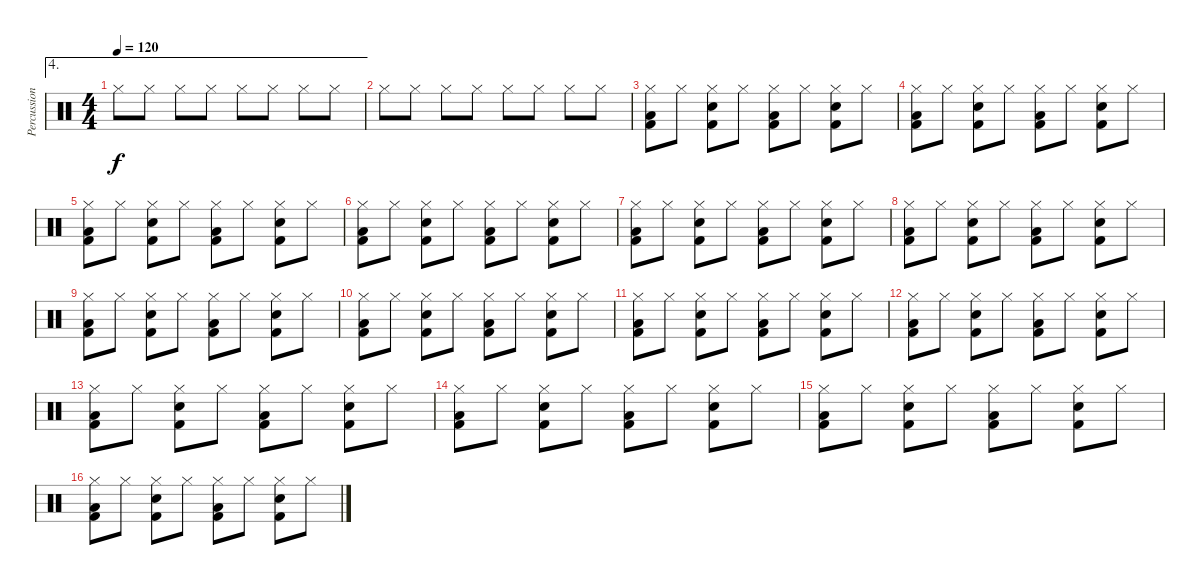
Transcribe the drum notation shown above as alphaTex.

\track ("Percussions" "Percussion") {instrument percussion}
\staff {score}
\articulation defaults
\ae 4
\ts (4 4)
\tempo 120
\clef neutral
\ks c "Hi-Hat (closed)".8{dy f} "Hi-Hat (closed)".8 "Hi-Hat (closed)".8 "Hi-Hat (closed)".8 "Hi-Hat (closed)".8 "Hi-Hat (closed)".8 "Hi-Hat (closed)".8 "Hi-Hat (closed)".8
|
"Hi-Hat (closed)".8 "Hi-Hat (closed)".8 "Hi-Hat (closed)".8 "Hi-Hat (closed)".8 "Hi-Hat (closed)".8 "Hi-Hat (closed)".8 "Hi-Hat (closed)".8 "Hi-Hat (closed)".8 |
("Hi-Hat (closed)" "Low Floor Tom (hit)" "Kick (hit) 2").8 "Hi-Hat (closed)".8 ("Hi-Hat (closed)" "Snare (hit) 2" "Kick (hit) 2").8 "Hi-Hat (closed)".8 ("Hi-Hat (closed)" "Low Floor Tom (hit)" "Kick (hit) 2").8 "Hi-Hat (closed)".8 ("Hi-Hat (closed)" "Snare (hit) 2" "Kick (hit) 2").8 "Hi-Hat (closed)".8 |
("Hi-Hat (closed)" "Low Floor Tom (hit)" "Kick (hit) 2").8 "Hi-Hat (closed)".8 ("Hi-Hat (closed)" "Snare (hit) 2" "Kick (hit) 2").8 "Hi-Hat (closed)".8 ("Hi-Hat (closed)" "Low Floor Tom (hit)" "Kick (hit) 2").8 "Hi-Hat (closed)".8 ("Hi-Hat (closed)" "Snare (hit) 2" "Kick (hit) 2").8 "Hi-Hat (closed)".8 |
("Hi-Hat (closed)" "Low Floor Tom (hit)" "Kick (hit) 2").8 "Hi-Hat (closed)".8 ("Hi-Hat (closed)" "Snare (hit) 2" "Kick (hit) 2").8 "Hi-Hat (closed)".8 ("Hi-Hat (closed)" "Low Floor Tom (hit)" "Kick (hit) 2").8 "Hi-Hat (closed)".8 ("Hi-Hat (closed)" "Snare (hit) 2" "Kick (hit) 2").8 "Hi-Hat (closed)".8 |
("Hi-Hat (closed)" "Low Floor Tom (hit)" "Kick (hit) 2").8 "Hi-Hat (closed)".8 ("Hi-Hat (closed)" "Snare (hit) 2" "Kick (hit) 2").8 "Hi-Hat (closed)".8 ("Hi-Hat (closed)" "Low Floor Tom (hit)" "Kick (hit) 2").8 "Hi-Hat (closed)".8 ("Hi-Hat (closed)" "Snare (hit) 2" "Kick (hit) 2").8 "Hi-Hat (closed)".8 |
("Hi-Hat (closed)" "Low Floor Tom (hit)" "Kick (hit) 2").8 "Hi-Hat (closed)".8 ("Hi-Hat (closed)" "Snare (hit) 2" "Kick (hit) 2").8 "Hi-Hat (closed)".8 ("Hi-Hat (closed)" "Low Floor Tom (hit)" "Kick (hit) 2").8 "Hi-Hat (closed)".8 ("Hi-Hat (closed)" "Snare (hit) 2" "Kick (hit) 2").8 "Hi-Hat (closed)".8 |
("Hi-Hat (closed)" "Low Floor Tom (hit)" "Kick (hit) 2").8 "Hi-Hat (closed)".8 ("Hi-Hat (closed)" "Snare (hit) 2" "Kick (hit) 2").8 "Hi-Hat (closed)".8 ("Hi-Hat (closed)" "Low Floor Tom (hit)" "Kick (hit) 2").8 "Hi-Hat (closed)".8 ("Hi-Hat (closed)" "Snare (hit) 2" "Kick (hit) 2").8 "Hi-Hat (closed)".8 |
("Hi-Hat (closed)" "Low Floor Tom (hit)" "Kick (hit) 2").8 "Hi-Hat (closed)".8 ("Hi-Hat (closed)" "Snare (hit) 2" "Kick (hit) 2").8 "Hi-Hat (closed)".8 ("Hi-Hat (closed)" "Low Floor Tom (hit)" "Kick (hit) 2").8 "Hi-Hat (closed)".8 ("Hi-Hat (closed)" "Snare (hit) 2" "Kick (hit) 2").8 "Hi-Hat (closed)".8 |
("Hi-Hat (closed)" "Low Floor Tom (hit)" "Kick (hit) 2").8 "Hi-Hat (closed)".8 ("Hi-Hat (closed)" "Snare (hit) 2" "Kick (hit) 2").8 "Hi-Hat (closed)".8 ("Hi-Hat (closed)" "Low Floor Tom (hit)" "Kick (hit) 2").8 "Hi-Hat (closed)".8 ("Hi-Hat (closed)" "Snare (hit) 2" "Kick (hit) 2").8 "Hi-Hat (closed)".8 |
("Hi-Hat (closed)" "Low Floor Tom (hit)" "Kick (hit) 2").8 "Hi-Hat (closed)".8 ("Hi-Hat (closed)" "Snare (hit) 2" "Kick (hit) 2").8 "Hi-Hat (closed)".8 ("Hi-Hat (closed)" "Low Floor Tom (hit)" "Kick (hit) 2").8 "Hi-Hat (closed)".8 ("Hi-Hat (closed)" "Snare (hit) 2" "Kick (hit) 2").8 "Hi-Hat (closed)".8 |
("Hi-Hat (closed)" "Low Floor Tom (hit)" "Kick (hit) 2").8 "Hi-Hat (closed)".8 ("Hi-Hat (closed)" "Snare (hit) 2" "Kick (hit) 2").8 "Hi-Hat (closed)".8 ("Hi-Hat (closed)" "Low Floor Tom (hit)" "Kick (hit) 2").8 "Hi-Hat (closed)".8 ("Hi-Hat (closed)" "Snare (hit) 2" "Kick (hit) 2").8 "Hi-Hat (closed)".8 |
("Hi-Hat (closed)" "Low Floor Tom (hit)" "Kick (hit) 2").8 "Hi-Hat (closed)".8 ("Hi-Hat (closed)" "Snare (hit) 2" "Kick (hit) 2").8 "Hi-Hat (closed)".8 ("Hi-Hat (closed)" "Low Floor Tom (hit)" "Kick (hit) 2").8 "Hi-Hat (closed)".8 ("Hi-Hat (closed)" "Snare (hit) 2" "Kick (hit) 2").8 "Hi-Hat (closed)".8 |
("Hi-Hat (closed)" "Low Floor Tom (hit)" "Kick (hit) 2").8 "Hi-Hat (closed)".8 ("Hi-Hat (closed)" "Snare (hit) 2" "Kick (hit) 2").8 "Hi-Hat (closed)".8 ("Hi-Hat (closed)" "Low Floor Tom (hit)" "Kick (hit) 2").8 "Hi-Hat (closed)".8 ("Hi-Hat (closed)" "Snare (hit) 2" "Kick (hit) 2").8 "Hi-Hat (closed)".8 |
("Hi-Hat (closed)" "Low Floor Tom (hit)" "Kick (hit) 2").8 "Hi-Hat (closed)".8 ("Hi-Hat (closed)" "Snare (hit) 2" "Kick (hit) 2").8 "Hi-Hat (closed)".8 ("Hi-Hat (closed)" "Low Floor Tom (hit)" "Kick (hit) 2").8 "Hi-Hat (closed)".8 ("Hi-Hat (closed)" "Snare (hit) 2" "Kick (hit) 2").8 "Hi-Hat (closed)".8 |
("Hi-Hat (closed)" "Low Floor Tom (hit)" "Kick (hit) 2").8 "Hi-Hat (closed)".8 ("Hi-Hat (closed)" "Snare (hit) 2" "Kick (hit) 2").8 "Hi-Hat (closed)".8 ("Hi-Hat (closed)" "Low Floor Tom (hit)" "Kick (hit) 2").8 "Hi-Hat (closed)".8 ("Hi-Hat (closed)" "Snare (hit) 2" "Kick (hit) 2").8 "Hi-Hat (closed)".8
